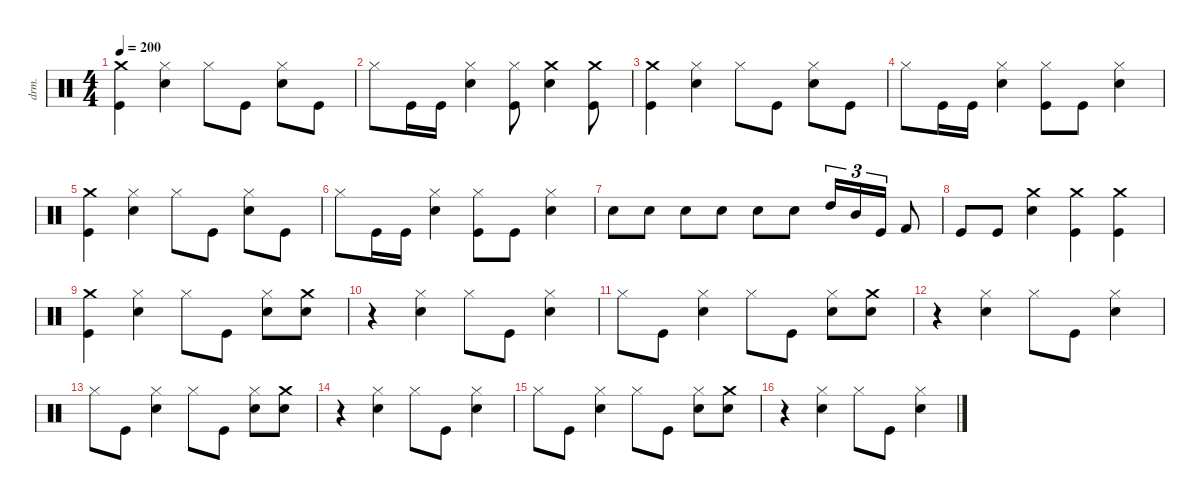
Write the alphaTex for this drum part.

\defaultSystemsLayout 4
\hideDynamics
\bracketExtendMode nobrackets
\otherSystemsTrackNameOrientation horizontal
\track ("Lars Ulrich (Drums)" "drm.") {instrument percussion}
\staff {score}
\articulation defaults
\ts (4 4)
\tempo 200
\clef neutral
\ks c
("Kick (hit)" "Crash medium (hit)").4{dy f beam Down} ("Hi-Hat (closed)" "Snare (hit) 2").4{beam Down} "Hi-Hat (closed)".8{beam Down} "Kick (hit)".8{beam Down} ("Snare (hit) 2" "Hi-Hat (closed)").8{beam Down} "Kick (hit)".8{beam Down} |
"Hi-Hat (closed)".8{beam Down} "Kick (hit)".16{beam Down} "Kick (hit)".16{beam Down} ("Snare (hit) 2" "Hi-Hat (closed)").4{beam Down} ("Kick (hit)" "Hi-Hat (closed)").8{beam Down} ("Snare (hit) 2" "Crash medium (hit)").4{beam Down} ("Crash medium (hit)" "Kick (hit)").8{beam Down} |
("Kick (hit)" "Crash medium (hit)").4{beam Down} ("Hi-Hat (closed)" "Snare (hit) 2").4{beam Down} "Hi-Hat (closed)".8{beam Down} "Kick (hit)".8{beam Down} ("Snare (hit) 2" "Hi-Hat (closed)").8{beam Down} "Kick (hit)".8{beam Down} |
"Hi-Hat (closed)".8{beam Down} "Kick (hit)".16{beam Down} "Kick (hit)".16{beam Down} ("Snare (hit) 2" "Hi-Hat (closed)").4{beam Down} ("Hi-Hat (closed)" "Kick (hit)").8{beam Down} "Kick (hit)".8{beam Down} ("Snare (hit) 2" "Hi-Hat (closed)").4{beam Down} |
("Kick (hit)" "Crash medium (hit)").4{beam Down} ("Hi-Hat (closed)" "Snare (hit) 2").4{beam Down} "Hi-Hat (closed)".8{beam Down} "Kick (hit)".8{beam Down} ("Snare (hit) 2" "Hi-Hat (closed)").8{beam Down} "Kick (hit)".8{beam Down} |
"Hi-Hat (closed)".8{beam Down} "Kick (hit)".16{beam Down} "Kick (hit)".16{beam Down} ("Snare (hit) 2" "Hi-Hat (closed)").4{beam Down} ("Hi-Hat (closed)" "Kick (hit)").8{beam Down} "Kick (hit)".8{beam Down} ("Snare (hit) 2" "Hi-Hat (closed)").4{beam Down} |
"Snare (hit) 2".8{beam Down} "Snare (hit) 2".8{beam Down} "Snare (hit) 2".8{beam Down} "Snare (hit) 2".8{beam Down} "Snare (hit) 2".8{beam Down} "Snare (hit) 2".8{beam Down} "High Tom (hit)".16{tu (3 2) beam Up} "Mid Tom (hit)".16{tu (3 2) beam Up} "Kick (hit)".16{tu (3 2) beam Up} "Kick (hit) 2".8{beam Up} |
"Kick (hit)".8{beam Up} "Kick (hit)".8{beam Up} ("Crash medium (hit)" "Snare (hit) 2").4{beam Down} ("Crash medium (hit)" "Kick (hit)").4{beam Down} ("Crash medium (hit)" "Kick (hit)").4{beam Down} |
("Kick (hit)" "Crash medium (hit)").4{beam Down} ("Hi-Hat (closed)" "Snare (hit) 2").4{beam Down} "Hi-Hat (closed)".8{beam Down} "Kick (hit)".8{beam Down} ("Hi-Hat (closed)" "Snare (hit) 2").8{beam Down} ("Crash medium (hit)" "Snare (hit) 2").8{beam Down} |
r.4{beam Down} ("Snare (hit) 2" "Hi-Hat (closed)").4{beam Down} "Hi-Hat (closed)".8{beam Down} "Kick (hit)".8{beam Down} ("Snare (hit) 2" "Hi-Hat (closed)").4{beam Down} |
"Hi-Hat (closed)".8{beam Down} "Kick (hit)".8{beam Down} ("Snare (hit) 2" "Hi-Hat (closed)").4{beam Down} "Hi-Hat (closed)".8{beam Down} "Kick (hit)".8{beam Down} ("Hi-Hat (closed)" "Snare (hit) 2").8{beam Down} ("Crash medium (hit)" "Snare (hit) 2").8{beam Down} |
r.4{beam Down} ("Snare (hit) 2" "Hi-Hat (closed)").4{beam Down} "Hi-Hat (closed)".8{beam Down} "Kick (hit)".8{beam Down} ("Snare (hit) 2" "Hi-Hat (closed)").4{beam Down} |
"Hi-Hat (closed)".8{beam Down} "Kick (hit)".8{beam Down} ("Snare (hit) 2" "Hi-Hat (closed)").4{beam Down} "Hi-Hat (closed)".8{beam Down} "Kick (hit)".8{beam Down} ("Hi-Hat (closed)" "Snare (hit) 2").8{beam Down} ("Crash medium (hit)" "Snare (hit) 2").8{beam Down} |
r.4{beam Down} ("Snare (hit) 2" "Hi-Hat (closed)").4{beam Down} "Hi-Hat (closed)".8{beam Down} "Kick (hit)".8{beam Down} ("Snare (hit) 2" "Hi-Hat (closed)").4{beam Down} |
"Hi-Hat (closed)".8{beam Down} "Kick (hit)".8{beam Down} ("Snare (hit) 2" "Hi-Hat (closed)").4{beam Down} "Hi-Hat (closed)".8{beam Down} "Kick (hit)".8{beam Down} ("Hi-Hat (closed)" "Snare (hit) 2").8{beam Down} ("Crash medium (hit)" "Snare (hit) 2").8{beam Down} |
r.4{beam Down} ("Snare (hit) 2" "Hi-Hat (closed)").4{beam Down} "Hi-Hat (closed)".8{beam Down} "Kick (hit)".8{beam Down} ("Snare (hit) 2" "Hi-Hat (closed)").4{beam Down}
